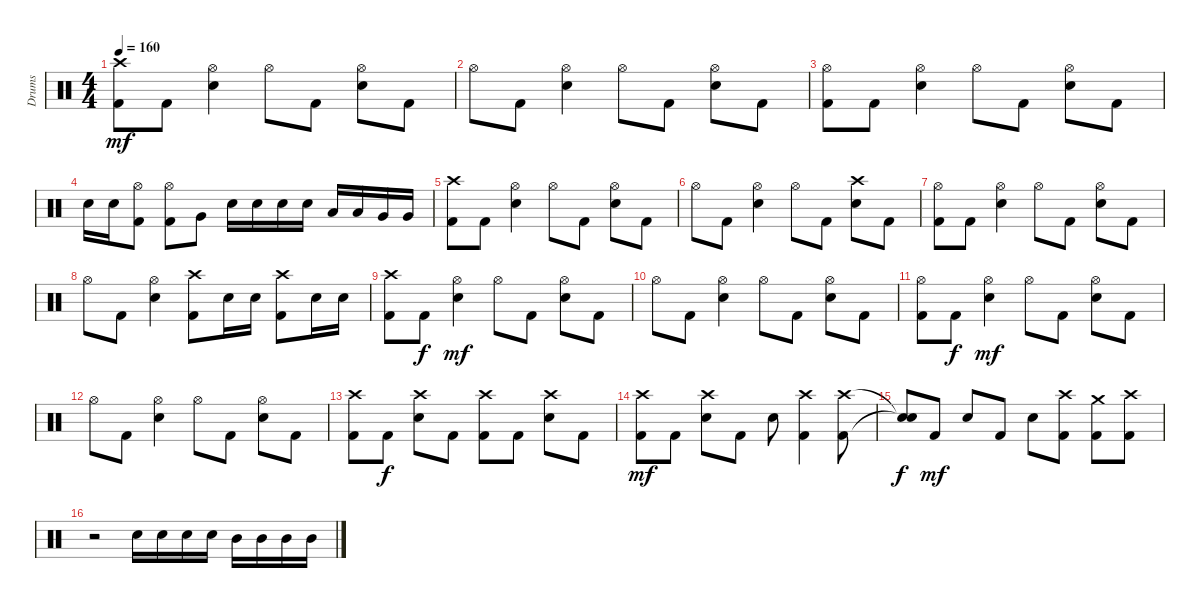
\track ("Drums" "Drums") {instrument percussion}
\staff {score}
\articulation defaults
\ts (4 4)
\tempo 160
\clef neutral
\ks c
("Crash high (hit)" "Kick (hit) 2").8{dy mf} "Kick (hit) 2".8 ("Hi-Hat (open)" "Electric Snare (hit)").4 "Hi-Hat (open)".8 "Kick (hit) 2".8 ("Hi-Hat (open)" "Electric Snare (hit)").8 "Kick (hit) 2".8 |
"Hi-Hat (open)".8 "Kick (hit) 2".8 ("Hi-Hat (open)" "Electric Snare (hit)").4 "Hi-Hat (open)".8 "Kick (hit) 2".8 ("Hi-Hat (open)" "Electric Snare (hit)").8 "Kick (hit) 2".8 |
("Hi-Hat (open)" "Kick (hit) 2").8 "Kick (hit) 2".8 ("Hi-Hat (open)" "Electric Snare (hit)").4 "Hi-Hat (open)".8 "Kick (hit) 2".8 ("Hi-Hat (open)" "Electric Snare (hit)").8 "Kick (hit) 2".8 |
"Electric Snare (hit)".16 "Electric Snare (hit)".16 ("Hi-Hat (open)" "Kick (hit) 2").8 ("Hi-Hat (open)" "Kick (hit) 2").8 "Very Low Tom (hit)".8 "Electric Snare (hit)".16 "Electric Snare (hit)".16 "Electric Snare (hit)".16 "Electric Snare (hit)".16 "Low Tom (hit)".16 "Low Tom (hit)".16 "Very Low Tom (hit)".16 "Very Low Tom (hit)".16 |
("Crash high (hit)" "Kick (hit) 2").8 "Kick (hit) 2".8 ("Hi-Hat (open)" "Electric Snare (hit)").4 "Hi-Hat (open)".8 "Kick (hit) 2".8 ("Hi-Hat (open)" "Electric Snare (hit)").8 "Kick (hit) 2".8 |
"Hi-Hat (open)".8 "Kick (hit) 2".8 ("Hi-Hat (open)" "Electric Snare (hit)").4 "Hi-Hat (open)".8 "Kick (hit) 2".8 ("Crash high (hit)" "Electric Snare (hit)").8 "Kick (hit) 2".8 |
("Hi-Hat (open)" "Kick (hit) 2").8 "Kick (hit) 2".8 ("Hi-Hat (open)" "Electric Snare (hit)").4 "Hi-Hat (open)".8 "Kick (hit) 2".8 ("Hi-Hat (open)" "Electric Snare (hit)").8 "Kick (hit) 2".8 |
"Hi-Hat (open)".8 "Kick (hit) 2".8 ("Hi-Hat (open)" "Electric Snare (hit)").4 ("Crash high (hit)" "Kick (hit) 2").8 "Electric Snare (hit)".16 "Electric Snare (hit)".16 ("Crash high (hit)" "Kick (hit) 2").8 "Electric Snare (hit)".16 "Electric Snare (hit)".16 |
("Crash high (hit)" "Kick (hit) 2").8 "Kick (hit) 2".8{dy f} ("Hi-Hat (open)" "Electric Snare (hit)").4{dy mf} "Hi-Hat (open)".8 "Kick (hit) 2".8 ("Hi-Hat (open)" "Electric Snare (hit)").8 "Kick (hit) 2".8 |
"Hi-Hat (open)".8 "Kick (hit) 2".8 ("Hi-Hat (open)" "Electric Snare (hit)").4 "Hi-Hat (open)".8 "Kick (hit) 2".8 ("Hi-Hat (open)" "Electric Snare (hit)").8 "Kick (hit) 2".8 |
("Hi-Hat (open)" "Kick (hit) 2").8 "Kick (hit) 2".8{dy f} ("Hi-Hat (open)" "Electric Snare (hit)").4{dy mf} "Hi-Hat (open)".8 "Kick (hit) 2".8 ("Hi-Hat (open)" "Electric Snare (hit)").8 "Kick (hit) 2".8 |
"Hi-Hat (open)".8 "Kick (hit) 2".8 ("Hi-Hat (open)" "Electric Snare (hit)").4 "Hi-Hat (open)".8 "Kick (hit) 2".8 ("Hi-Hat (open)" "Electric Snare (hit)").8 "Kick (hit) 2".8 |
("Crash high (hit)" "Kick (hit) 2").8 "Kick (hit) 2".8{dy f} ("Crash high (hit)" "Electric Snare (hit)").8 "Kick (hit) 2".8 ("Crash high (hit)" "Kick (hit) 2").8 "Kick (hit) 2".8 ("Crash high (hit)" "Electric Snare (hit)").8 "Kick (hit) 2".8 |
("Crash high (hit)" "Kick (hit) 2").8{dy mf} "Kick (hit) 2".8 ("Crash high (hit)" "Electric Snare (hit)").8 "Kick (hit) 2".8 "Electric Snare (hit)".8 ("Crash high (hit)" "Kick (hit) 2").4 ("Crash high (hit)" "Kick (hit) 2").8 |
("Snare (hit)"{t} "Snare (hit)"{t}).8{dy f} "Kick (hit) 2".8{dy mf} "Electric Snare (hit)".8 "Kick (hit) 2".8 "Electric Snare (hit)".8 ("Crash high (hit)" "Kick (hit) 2").8 ("Crash medium (hit)" "Kick (hit) 2").8 ("Crash high (hit)" "Kick (hit) 2").8 |
r.2 "Electric Snare (hit)".16 "Electric Snare (hit)".16 "Electric Snare (hit)".16 "Electric Snare (hit)".16 "Mid Tom (hit)".16 "Mid Tom (hit)".16 "Mid Tom (hit)".16 "Mid Tom (hit)".16
